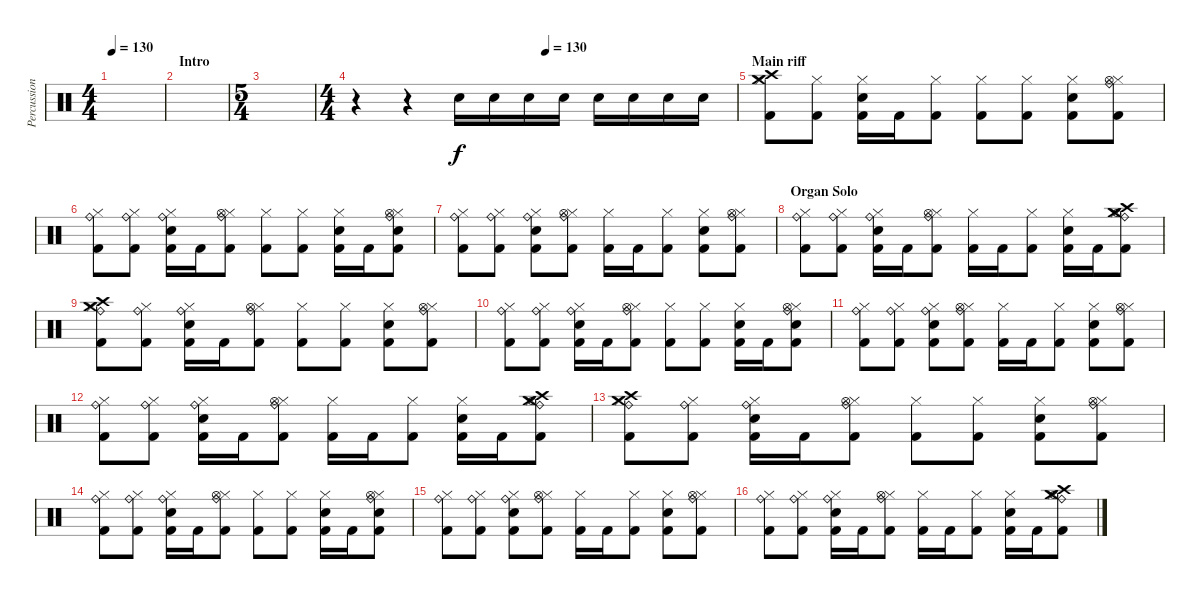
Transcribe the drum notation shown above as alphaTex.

\track ("Percussion" "Percussion") {instrument percussion}
\staff {score}
\articulation defaults
\ts (4 4)
\tempo 130
\clef neutral
\ks c
|
\section ("" "Intro")
|
\ts (5 4)
|
\ts (4 4)
\tempo (130 0.5)
r.4 r.4 "Electric Snare (hit)".16 "Electric Snare (hit)".16 "Electric Snare (hit)".16 "Electric Snare (hit)".16 "Electric Snare (hit)".16 "Electric Snare (hit)".16 "Electric Snare (hit)".16 "Electric Snare (hit)".16 |
\section ("" "Main riff")
("Hi-Hat (closed)" "Crash medium (hit)" "Crash high (hit)" "Kick (hit) 2").8 ("Hi-Hat (closed)" "Kick (hit) 2").8 ("Hi-Hat (closed)" "Electric Snare (hit)" "Kick (hit) 2").16 "Kick (hit) 2".16 ("Hi-Hat (closed)" "Kick (hit) 2").8 ("Hi-Hat (closed)" "Kick (hit) 2").8 ("Hi-Hat (closed)" "Kick (hit) 2").8 ("Hi-Hat (closed)" "Electric Snare (hit)" "Kick (hit) 2").8 ("Hi-Hat (closed)" "Ride (bell)" "Hi-Hat (open)" "Kick (hit) 2").8 |
("Hi-Hat (closed)" "Ride (bell)" "Kick (hit) 2").8 ("Hi-Hat (closed)" "Ride (bell)" "Kick (hit) 2").8 ("Hi-Hat (closed)" "Ride (bell)" "Electric Snare (hit)" "Kick (hit) 2").16 "Kick (hit) 2".16 ("Hi-Hat (closed)" "Ride (bell)" "Hi-Hat (open)" "Kick (hit) 2").8 ("Hi-Hat (closed)" "Kick (hit) 2").8 ("Hi-Hat (closed)" "Kick (hit) 2").8 ("Hi-Hat (closed)" "Electric Snare (hit)" "Kick (hit) 2").16 "Kick (hit) 2".16 ("Hi-Hat (closed)" "Ride (bell)" "Hi-Hat (open)" "Electric Snare (hit)" "Kick (hit) 2").8 |
("Hi-Hat (closed)" "Ride (bell)" "Kick (hit) 2").8 ("Hi-Hat (closed)" "Ride (bell)" "Kick (hit) 2").8 ("Hi-Hat (closed)" "Ride (bell)" "Electric Snare (hit)" "Kick (hit) 2").8 ("Hi-Hat (closed)" "Ride (bell)" "Hi-Hat (open)" "Kick (hit) 2").8 ("Hi-Hat (closed)" "Kick (hit) 2").16 "Kick (hit) 2".16 ("Hi-Hat (closed)" "Kick (hit) 2").8 ("Hi-Hat (closed)" "Electric Snare (hit)" "Kick (hit) 2").8 ("Hi-Hat (closed)" "Ride (bell)" "Hi-Hat (open)" "Kick (hit) 2").8 |
\section ("" "Organ Solo")
("Hi-Hat (closed)" "Ride (bell)" "Kick (hit) 2").8 ("Hi-Hat (closed)" "Ride (bell)" "Kick (hit) 2").8 ("Hi-Hat (closed)" "Ride (bell)" "Electric Snare (hit)" "Kick (hit) 2").16 "Kick (hit) 2".16 ("Hi-Hat (closed)" "Ride (bell)" "Hi-Hat (open)" "Kick (hit) 2").8 ("Hi-Hat (closed)" "Kick (hit) 2").16 "Kick (hit) 2".16 ("Hi-Hat (closed)" "Kick (hit) 2").8 ("Hi-Hat (closed)" "Electric Snare (hit)" "Kick (hit) 2").16 "Kick (hit) 2".16 ("Hi-Hat (closed)" "Ride (bell)" "Hi-Hat (open)" "Crash high (hit)" "Kick (hit) 2" "Crash medium (hit)").8 |
("Hi-Hat (closed)" "Ride (bell)" "Crash medium (hit)" "Crash high (hit)" "Kick (hit) 2").8 ("Hi-Hat (closed)" "Ride (bell)" "Kick (hit) 2").8 ("Hi-Hat (closed)" "Ride (bell)" "Electric Snare (hit)" "Kick (hit) 2").16 "Kick (hit) 2".16 ("Hi-Hat (closed)" "Ride (bell)" "Hi-Hat (open)" "Kick (hit) 2").8 ("Hi-Hat (closed)" "Kick (hit) 2").8 ("Hi-Hat (closed)" "Kick (hit) 2").8 ("Hi-Hat (closed)" "Electric Snare (hit)" "Kick (hit) 2").8 ("Hi-Hat (closed)" "Ride (bell)" "Hi-Hat (open)" "Kick (hit) 2").8 |
("Hi-Hat (closed)" "Ride (bell)" "Kick (hit) 2").8 ("Hi-Hat (closed)" "Ride (bell)" "Kick (hit) 2").8 ("Hi-Hat (closed)" "Ride (bell)" "Electric Snare (hit)" "Kick (hit) 2").16 "Kick (hit) 2".16 ("Hi-Hat (closed)" "Ride (bell)" "Hi-Hat (open)" "Kick (hit) 2").8 ("Hi-Hat (closed)" "Kick (hit) 2").8 ("Hi-Hat (closed)" "Kick (hit) 2").8 ("Hi-Hat (closed)" "Electric Snare (hit)" "Kick (hit) 2").16 "Kick (hit) 2".16 ("Hi-Hat (closed)" "Ride (bell)" "Hi-Hat (open)" "Electric Snare (hit)" "Kick (hit) 2").8 |
("Hi-Hat (closed)" "Ride (bell)" "Kick (hit) 2").8 ("Hi-Hat (closed)" "Ride (bell)" "Kick (hit) 2").8 ("Hi-Hat (closed)" "Ride (bell)" "Electric Snare (hit)" "Kick (hit) 2").8 ("Hi-Hat (closed)" "Ride (bell)" "Hi-Hat (open)" "Kick (hit) 2").8 ("Hi-Hat (closed)" "Kick (hit) 2").16 "Kick (hit) 2".16 ("Hi-Hat (closed)" "Kick (hit) 2").8 ("Hi-Hat (closed)" "Electric Snare (hit)" "Kick (hit) 2").8 ("Hi-Hat (closed)" "Ride (bell)" "Hi-Hat (open)" "Kick (hit) 2").8 |
("Hi-Hat (closed)" "Ride (bell)" "Kick (hit) 2").8 ("Hi-Hat (closed)" "Ride (bell)" "Kick (hit) 2").8 ("Hi-Hat (closed)" "Ride (bell)" "Electric Snare (hit)" "Kick (hit) 2").16 "Kick (hit) 2".16 ("Hi-Hat (closed)" "Ride (bell)" "Hi-Hat (open)" "Kick (hit) 2").8 ("Hi-Hat (closed)" "Kick (hit) 2").16 "Kick (hit) 2".16 ("Hi-Hat (closed)" "Kick (hit) 2").8 ("Hi-Hat (closed)" "Electric Snare (hit)" "Kick (hit) 2").16 "Kick (hit) 2".16 ("Hi-Hat (closed)" "Ride (bell)" "Hi-Hat (open)" "Crash high (hit)" "Kick (hit) 2" "Crash medium (hit)").8 |
("Hi-Hat (closed)" "Crash medium (hit)" "Ride (bell)" "Kick (hit) 2" "Crash high (hit)").8 ("Hi-Hat (closed)" "Ride (bell)" "Kick (hit) 2").8 ("Hi-Hat (closed)" "Ride (bell)" "Electric Snare (hit)" "Kick (hit) 2").16 "Kick (hit) 2".16 ("Hi-Hat (closed)" "Ride (bell)" "Hi-Hat (open)" "Kick (hit) 2").8 ("Hi-Hat (closed)" "Kick (hit) 2").8 ("Hi-Hat (closed)" "Kick (hit) 2").8 ("Hi-Hat (closed)" "Electric Snare (hit)" "Kick (hit) 2").8 ("Hi-Hat (closed)" "Ride (bell)" "Hi-Hat (open)" "Kick (hit) 2").8 |
("Hi-Hat (closed)" "Ride (bell)" "Kick (hit) 2").8 ("Hi-Hat (closed)" "Ride (bell)" "Kick (hit) 2").8 ("Hi-Hat (closed)" "Ride (bell)" "Electric Snare (hit)" "Kick (hit) 2").16 "Kick (hit) 2".16 ("Hi-Hat (closed)" "Ride (bell)" "Hi-Hat (open)" "Kick (hit) 2").8 ("Hi-Hat (closed)" "Kick (hit) 2").8 ("Hi-Hat (closed)" "Kick (hit) 2").8 ("Hi-Hat (closed)" "Electric Snare (hit)" "Kick (hit) 2").16 "Kick (hit) 2".16 ("Hi-Hat (closed)" "Ride (bell)" "Hi-Hat (open)" "Electric Snare (hit)" "Kick (hit) 2").8 |
("Hi-Hat (closed)" "Ride (bell)" "Kick (hit) 2").8 ("Hi-Hat (closed)" "Ride (bell)" "Kick (hit) 2").8 ("Hi-Hat (closed)" "Ride (bell)" "Electric Snare (hit)" "Kick (hit) 2").8 ("Hi-Hat (closed)" "Ride (bell)" "Hi-Hat (open)" "Kick (hit) 2").8 ("Hi-Hat (closed)" "Kick (hit) 2").16 "Kick (hit) 2".16 ("Hi-Hat (closed)" "Kick (hit) 2").8 ("Hi-Hat (closed)" "Electric Snare (hit)" "Kick (hit) 2").8 ("Hi-Hat (closed)" "Ride (bell)" "Hi-Hat (open)" "Kick (hit) 2").8 |
("Hi-Hat (closed)" "Ride (bell)" "Kick (hit) 2").8 ("Hi-Hat (closed)" "Ride (bell)" "Kick (hit) 2").8 ("Hi-Hat (closed)" "Ride (bell)" "Electric Snare (hit)" "Kick (hit) 2").16 "Kick (hit) 2".16 ("Hi-Hat (closed)" "Ride (bell)" "Hi-Hat (open)" "Kick (hit) 2").8 ("Hi-Hat (closed)" "Kick (hit) 2").16 "Kick (hit) 2".16 ("Hi-Hat (closed)" "Kick (hit) 2").8 ("Hi-Hat (closed)" "Electric Snare (hit)" "Kick (hit) 2").16 "Kick (hit) 2".16 ("Hi-Hat (closed)" "Ride (bell)" "Hi-Hat (open)" "Crash high (hit)" "Kick (hit) 2" "Crash medium (hit)").8
